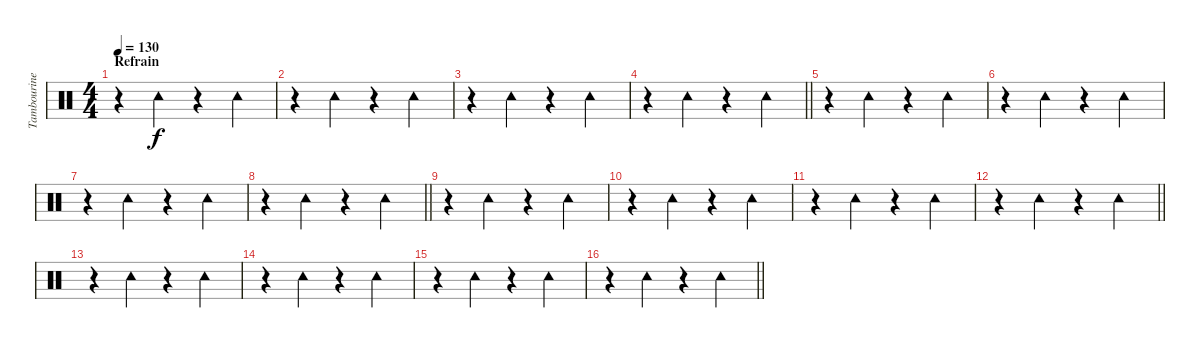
\track ("Tambourine" "Tambourine") {instrument percussion}
\staff {score}
\articulation defaults
\ts (4 4)
\section ("" "Refrain")
\tempo 130
\clef neutral
\ks c
r.4{dy f} "Tambourine (hit)".4 r.4 "Tambourine (hit)".4 |
r.4 "Tambourine (hit)".4 r.4 "Tambourine (hit)".4 |
r.4 "Tambourine (hit)".4 r.4 "Tambourine (hit)".4 |
\barLineRight lightlight
r.4 "Tambourine (hit)".4 r.4 "Tambourine (hit)".4 |
r.4 "Tambourine (hit)".4 r.4 "Tambourine (hit)".4 |
r.4 "Tambourine (hit)".4 r.4 "Tambourine (hit)".4 |
r.4 "Tambourine (hit)".4 r.4 "Tambourine (hit)".4 |
\barLineRight lightlight
r.4 "Tambourine (hit)".4 r.4 "Tambourine (hit)".4 |
r.4 "Tambourine (hit)".4 r.4 "Tambourine (hit)".4 |
r.4 "Tambourine (hit)".4 r.4 "Tambourine (hit)".4 |
r.4 "Tambourine (hit)".4 r.4 "Tambourine (hit)".4 |
\barLineRight lightlight
r.4 "Tambourine (hit)".4 r.4 "Tambourine (hit)".4 |
r.4 "Tambourine (hit)".4 r.4 "Tambourine (hit)".4 |
r.4 "Tambourine (hit)".4 r.4 "Tambourine (hit)".4 |
r.4 "Tambourine (hit)".4 r.4 "Tambourine (hit)".4 |
\barLineRight lightlight
r.4 "Tambourine (hit)".4 r.4 "Tambourine (hit)".4
